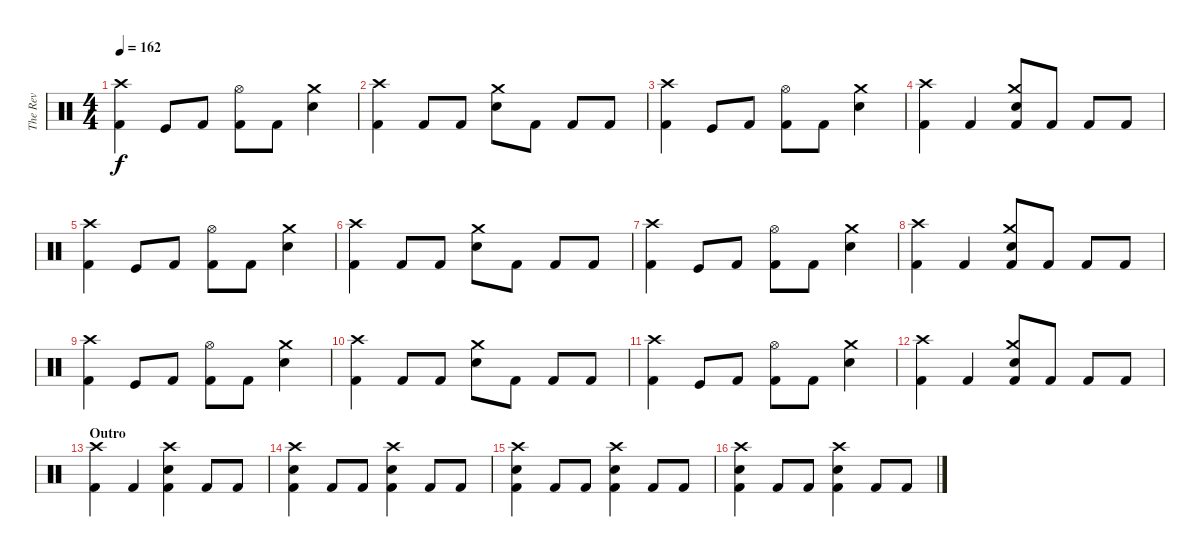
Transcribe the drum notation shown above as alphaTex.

\track ("The Rev" "The Rev") {instrument percussion}
\staff {score}
\articulation defaults
\ts (4 4)
\tempo 162
\clef neutral
\ks c
("Crash high (hit)" "Kick (hit) 2").4{dy f} "Kick (hit)".8 "Kick (hit) 2".8 ("Hi-Hat (open)" "Kick (hit) 2").8 "Kick (hit) 2".8 ("Crash medium (hit)" "Electric Snare (hit)").4 |
("Crash high (hit)" "Kick (hit) 2").4 "Kick (hit) 2".8 "Kick (hit) 2".8 ("Crash medium (hit)" "Electric Snare (hit)").8 "Kick (hit) 2".8 "Kick (hit) 2".8 "Kick (hit) 2".8 |
("Crash high (hit)" "Kick (hit) 2").4 "Kick (hit)".8 "Kick (hit) 2".8 ("Hi-Hat (open)" "Kick (hit) 2").8 "Kick (hit) 2".8 ("Crash medium (hit)" "Electric Snare (hit)").4 |
("Crash high (hit)" "Kick (hit) 2").4 "Kick (hit) 2".4 ("Crash medium (hit)" "Electric Snare (hit)" "Kick (hit) 2").8 "Kick (hit) 2".8 "Kick (hit) 2".8 "Kick (hit) 2".8 |
("Crash high (hit)" "Kick (hit) 2").4 "Kick (hit)".8 "Kick (hit) 2".8 ("Hi-Hat (open)" "Kick (hit) 2").8 "Kick (hit) 2".8 ("Crash medium (hit)" "Electric Snare (hit)").4 |
("Crash high (hit)" "Kick (hit) 2").4 "Kick (hit) 2".8 "Kick (hit) 2".8 ("Crash medium (hit)" "Electric Snare (hit)").8 "Kick (hit) 2".8 "Kick (hit) 2".8 "Kick (hit) 2".8 |
("Crash high (hit)" "Kick (hit) 2").4 "Kick (hit)".8 "Kick (hit) 2".8 ("Hi-Hat (open)" "Kick (hit) 2").8 "Kick (hit) 2".8 ("Crash medium (hit)" "Electric Snare (hit)").4 |
("Crash high (hit)" "Kick (hit) 2").4 "Kick (hit) 2".4 ("Crash medium (hit)" "Electric Snare (hit)" "Kick (hit) 2").8 "Kick (hit) 2".8 "Kick (hit) 2".8 "Kick (hit) 2".8 |
("Crash high (hit)" "Kick (hit) 2").4 "Kick (hit)".8 "Kick (hit) 2".8 ("Hi-Hat (open)" "Kick (hit) 2").8 "Kick (hit) 2".8 ("Crash medium (hit)" "Electric Snare (hit)").4 |
("Crash high (hit)" "Kick (hit) 2").4 "Kick (hit) 2".8 "Kick (hit) 2".8 ("Crash medium (hit)" "Electric Snare (hit)").8 "Kick (hit) 2".8 "Kick (hit) 2".8 "Kick (hit) 2".8 |
("Crash high (hit)" "Kick (hit) 2").4 "Kick (hit)".8 "Kick (hit) 2".8 ("Hi-Hat (open)" "Kick (hit) 2").8 "Kick (hit) 2".8 ("Crash medium (hit)" "Electric Snare (hit)").4 |
("Crash high (hit)" "Kick (hit) 2").4 "Kick (hit) 2".4 ("Crash medium (hit)" "Electric Snare (hit)" "Kick (hit) 2").8 "Kick (hit) 2".8 "Kick (hit) 2".8 "Kick (hit) 2".8 |
\section ("" "Outro")
("Crash high (hit)" "Kick (hit) 2").4 "Kick (hit) 2".4 ("Crash high (hit)" "Electric Snare (hit)" "Kick (hit) 2").4 "Kick (hit) 2".8 "Kick (hit) 2".8 |
("Crash high (hit)" "Electric Snare (hit)" "Kick (hit) 2").4 "Kick (hit) 2".8 "Kick (hit) 2".8 ("Crash high (hit)" "Electric Snare (hit)" "Kick (hit) 2").4 "Kick (hit) 2".8 "Kick (hit) 2".8 |
("Crash high (hit)" "Electric Snare (hit)" "Kick (hit) 2").4 "Kick (hit) 2".8 "Kick (hit) 2".8 ("Crash high (hit)" "Electric Snare (hit)" "Kick (hit) 2").4 "Kick (hit) 2".8 "Kick (hit) 2".8 |
("Crash high (hit)" "Electric Snare (hit)" "Kick (hit) 2").4 "Kick (hit) 2".8 "Kick (hit) 2".8 ("Crash high (hit)" "Electric Snare (hit)" "Kick (hit) 2").4 "Kick (hit) 2".8 "Kick (hit) 2".8
